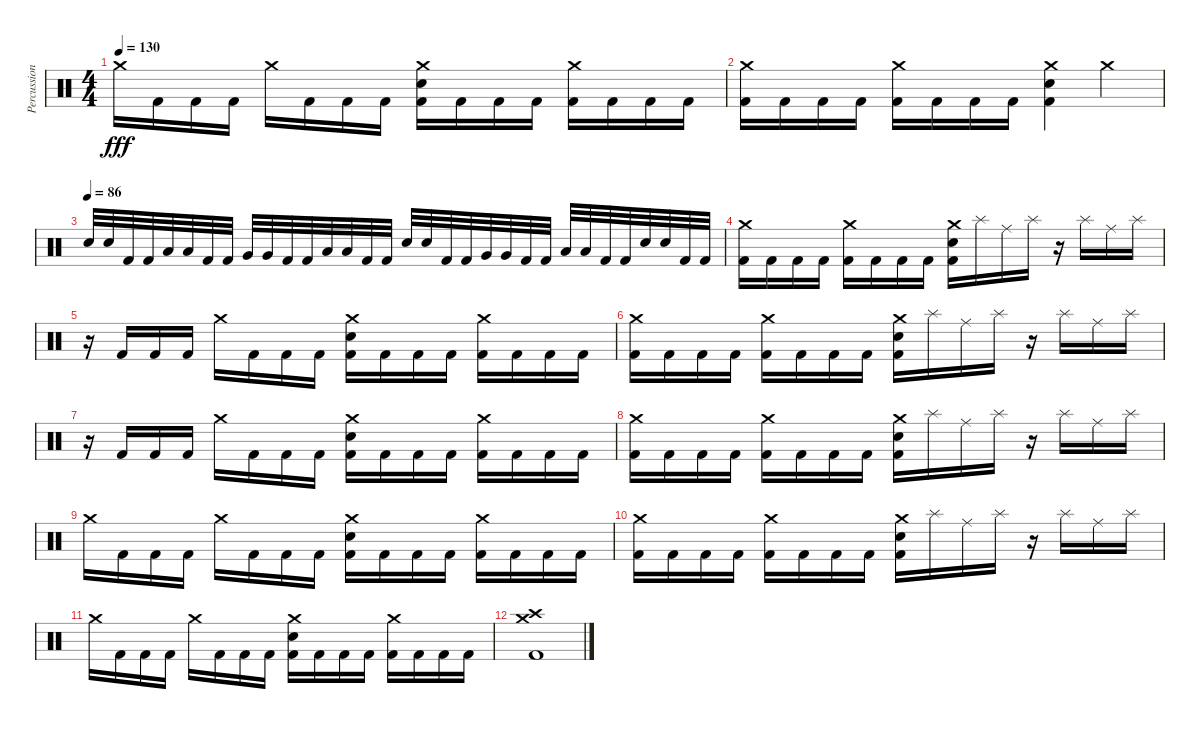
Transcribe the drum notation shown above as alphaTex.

\track ("Percussion" "Percussion") {instrument percussion}
\staff {score}
\articulation defaults
\ts (4 4)
\tempo 130
\clef neutral
\ks c "Crash medium (hit)".16{dy fff} "Kick (hit) 2".16 "Kick (hit) 2".16 "Kick (hit) 2".16 "Crash medium (hit)".16 "Kick (hit) 2".16 "Kick (hit) 2".16 "Kick (hit) 2".16
("Crash medium (hit)" "Electric Snare (hit)" "Kick (hit) 2").16 "Kick (hit) 2".16 "Kick (hit) 2".16 "Kick (hit) 2".16 ("Crash medium (hit)" "Kick (hit) 2").16 "Kick (hit) 2".16 "Kick (hit) 2".16 "Kick (hit) 2".16 |
("Crash medium (hit)" "Kick (hit) 2").16 "Kick (hit) 2".16 "Kick (hit) 2".16 "Kick (hit) 2".16 ("Crash medium (hit)" "Kick (hit) 2").16 "Kick (hit) 2".16 "Kick (hit) 2".16 "Kick (hit) 2".16 ("Crash medium (hit)" "Electric Snare (hit)" "Kick (hit) 2").4 "Crash medium (hit)".4 |
\tempo (86)
"Electric Snare (hit)".32 "Electric Snare (hit)".32 "Kick (hit) 2".32 "Kick (hit) 2".32 "Low Tom (hit)".32 "Low Tom (hit)".32 "Kick (hit) 2".32 "Kick (hit) 2".32 "Very Low Tom (hit)".32 "Very Low Tom (hit)".32 "Kick (hit) 2".32 "Kick (hit) 2".32 "Low Floor Tom (hit)".32 "Low Floor Tom (hit)".32 "Kick (hit) 2".32 "Kick (hit) 2".32 "Electric Snare (hit)".32 "Electric Snare (hit)".32 "Kick (hit) 2".32 "Kick (hit) 2".32 "Very Low Tom (hit)".32 "Very Low Tom (hit)".32 "Kick (hit) 2".32 "Kick (hit) 2".32 "Low Floor Tom (hit)".32 "Low Floor Tom (hit)".32 "Kick (hit) 2".32 "Kick (hit) 2".32 "Electric Snare (hit)".32 "Electric Snare (hit)".32 "Kick (hit) 2".32 "Kick (hit) 2".32 |
("Crash medium (hit)" "Kick (hit) 2").16 "Kick (hit) 2".16 "Kick (hit) 2".16 "Kick (hit) 2".16 ("Crash medium (hit)" "Kick (hit) 2").16 "Kick (hit) 2".16 "Kick (hit) 2".16 "Kick (hit) 2".16 ("Crash medium (hit)" "Electric Snare (hit)" "Kick (hit) 2").16 "Splash (hit)".16 "Ride (middle)".16 "Splash (hit)".16 r.16 "Splash (hit)".16 "Ride (middle)".16 "Splash (hit)".16 |
r.16 "Kick (hit) 2".16 "Kick (hit) 2".16 "Kick (hit) 2".16 "Crash medium (hit)".16 "Kick (hit) 2".16 "Kick (hit) 2".16 "Kick (hit) 2".16 ("Crash medium (hit)" "Electric Snare (hit)" "Kick (hit) 2").16 "Kick (hit) 2".16 "Kick (hit) 2".16 "Kick (hit) 2".16 ("Crash medium (hit)" "Kick (hit) 2").16 "Kick (hit) 2".16 "Kick (hit) 2".16 "Kick (hit) 2".16 |
("Crash medium (hit)" "Kick (hit) 2").16 "Kick (hit) 2".16 "Kick (hit) 2".16 "Kick (hit) 2".16 ("Crash medium (hit)" "Kick (hit) 2").16 "Kick (hit) 2".16 "Kick (hit) 2".16 "Kick (hit) 2".16 ("Crash medium (hit)" "Electric Snare (hit)" "Kick (hit) 2").16 "Splash (hit)".16 "Ride (middle)".16 "Splash (hit)".16 r.16 "Splash (hit)".16 "Ride (middle)".16 "Splash (hit)".16 |
r.16 "Kick (hit) 2".16 "Kick (hit) 2".16 "Kick (hit) 2".16 "Crash medium (hit)".16 "Kick (hit) 2".16 "Kick (hit) 2".16 "Kick (hit) 2".16 ("Crash medium (hit)" "Electric Snare (hit)" "Kick (hit) 2").16 "Kick (hit) 2".16 "Kick (hit) 2".16 "Kick (hit) 2".16 ("Crash medium (hit)" "Kick (hit) 2").16 "Kick (hit) 2".16 "Kick (hit) 2".16 "Kick (hit) 2".16 |
("Crash medium (hit)" "Kick (hit) 2").16 "Kick (hit) 2".16 "Kick (hit) 2".16 "Kick (hit) 2".16 ("Crash medium (hit)" "Kick (hit) 2").16 "Kick (hit) 2".16 "Kick (hit) 2".16 "Kick (hit) 2".16 ("Crash medium (hit)" "Electric Snare (hit)" "Kick (hit) 2").16 "Splash (hit)".16 "Ride (middle)".16 "Splash (hit)".16 r.16 "Splash (hit)".16 "Ride (middle)".16 "Splash (hit)".16 |
"Crash medium (hit)".16 "Kick (hit) 2".16 "Kick (hit) 2".16 "Kick (hit) 2".16 "Crash medium (hit)".16 "Kick (hit) 2".16 "Kick (hit) 2".16 "Kick (hit) 2".16 ("Crash medium (hit)" "Electric Snare (hit)" "Kick (hit) 2").16 "Kick (hit) 2".16 "Kick (hit) 2".16 "Kick (hit) 2".16 ("Crash medium (hit)" "Kick (hit) 2").16 "Kick (hit) 2".16 "Kick (hit) 2".16 "Kick (hit) 2".16 |
("Crash medium (hit)" "Kick (hit) 2").16 "Kick (hit) 2".16 "Kick (hit) 2".16 "Kick (hit) 2".16 ("Crash medium (hit)" "Kick (hit) 2").16 "Kick (hit) 2".16 "Kick (hit) 2".16 "Kick (hit) 2".16 ("Crash medium (hit)" "Electric Snare (hit)" "Kick (hit) 2").16 "Splash (hit)".16 "Ride (middle)".16 "Splash (hit)".16 r.16 "Splash (hit)".16 "Ride (middle)".16 "Splash (hit)".16 |
"Crash medium (hit)".16 "Kick (hit) 2".16 "Kick (hit) 2".16 "Kick (hit) 2".16 "Crash medium (hit)".16 "Kick (hit) 2".16 "Kick (hit) 2".16 "Kick (hit) 2".16 ("Crash medium (hit)" "Electric Snare (hit)" "Kick (hit) 2").16 "Kick (hit) 2".16 "Kick (hit) 2".16 "Kick (hit) 2".16 ("Crash medium (hit)" "Kick (hit) 2").16 "Kick (hit) 2".16 "Kick (hit) 2".16 "Kick (hit) 2".16 |
("Crash high (hit)" "Crash medium (hit)" "Kick (hit) 2").1
